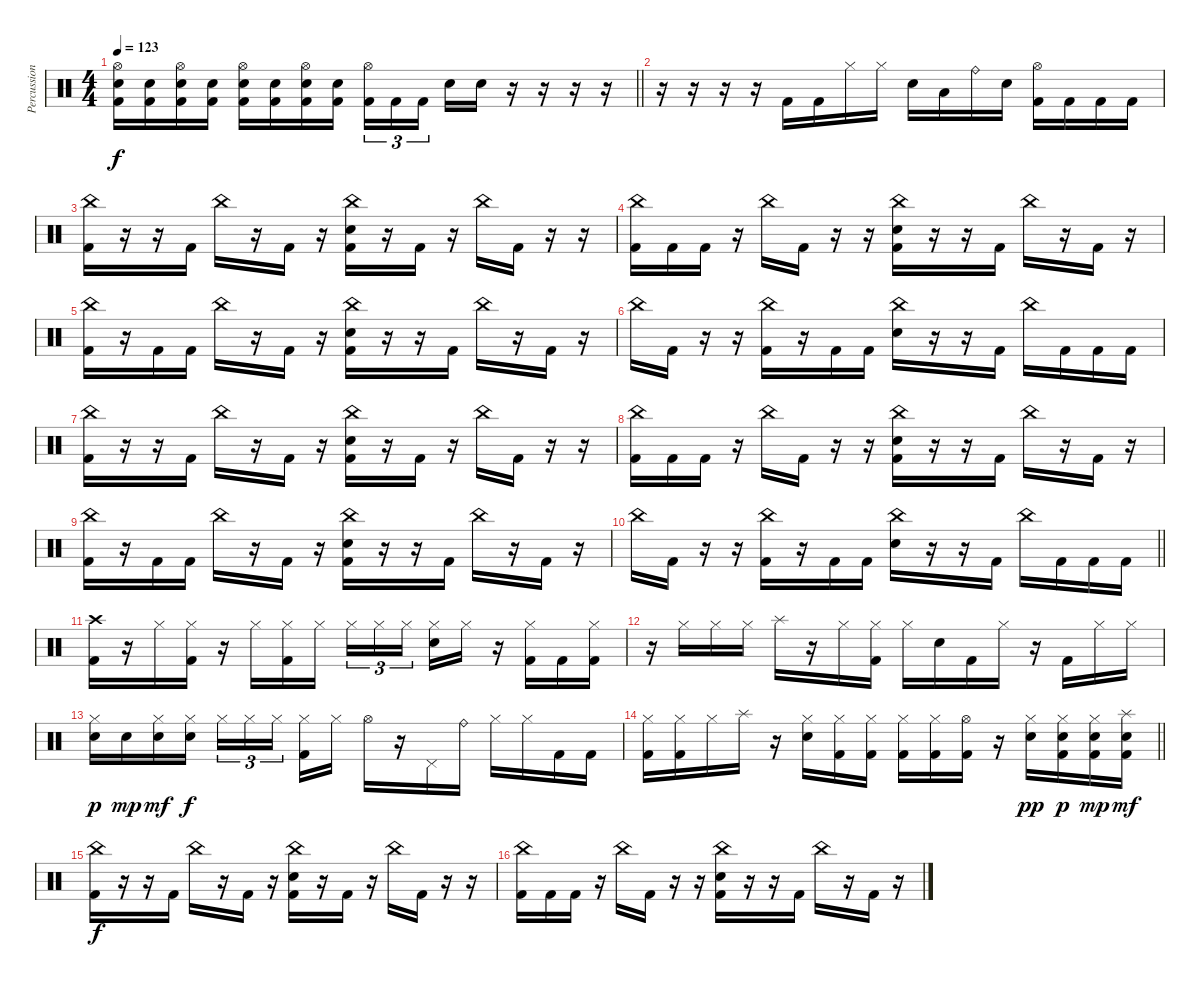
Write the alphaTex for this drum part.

\track ("Percussion" "Percussion") {instrument percussion}
\staff {score}
\articulation defaults
\ts (4 4)
\tempo 123
\clef neutral
\barLineRight lightlight
\ks c
("Hi-Hat (open)" "Electric Snare (hit)" "Kick (hit) 2").16{dy f} ("Electric Snare (hit)" "Kick (hit) 2").16 ("Hi-Hat (open)" "Electric Snare (hit)" "Kick (hit) 2").16 ("Electric Snare (hit)" "Kick (hit) 2").16 ("Hi-Hat (open)" "Electric Snare (hit)" "Kick (hit) 2").16 ("Electric Snare (hit)" "Kick (hit) 2").16 ("Hi-Hat (open)" "Electric Snare (hit)" "Kick (hit) 2").16 ("Electric Snare (hit)" "Kick (hit) 2").16 ("Hi-Hat (open)" "Kick (hit) 2").16{tu (3 2)} "Kick (hit) 2".16{tu (3 2)} "Kick (hit) 2".16{tu (3 2) beam splitsecondary} "Electric Snare (hit)".16 "Electric Snare (hit)".16 r.16 r.16 r.16 r.16 |
r.16 r.16 r.16 r.16 "Kick (hit) 2".16 "Kick (hit) 2".16 "Hi-Hat (closed)".16 "Hi-Hat (closed)".16 "Electric Snare (hit)".16 "Low Tom (hit)".16 "Ride (bell)".16 "Electric Snare (hit)".16 ("Hi-Hat (open)" "Kick (hit) 2").16 "Kick (hit) 2".16 "Kick (hit) 2".16 "Kick (hit) 2".16 |
("China (hit)" "Kick (hit) 2").16 r.16 r.16 "Kick (hit) 2".16 "China (hit)".16 r.16 "Kick (hit) 2".16 r.16 ("China (hit)" "Electric Snare (hit)" "Kick (hit) 2").16 r.16 "Kick (hit) 2".16 r.16 "China (hit)".16 "Kick (hit) 2".16 r.16 r.16 |
("China (hit)" "Kick (hit) 2").16 "Kick (hit) 2".16 "Kick (hit) 2".16 r.16 "China (hit)".16 "Kick (hit) 2".16 r.16 r.16 ("China (hit)" "Electric Snare (hit)" "Kick (hit) 2").16 r.16 r.16 "Kick (hit) 2".16 "China (hit)".16 r.16 "Kick (hit) 2".16 r.16 |
("China (hit)" "Kick (hit) 2").16 r.16 "Kick (hit) 2".16 "Kick (hit) 2".16 "China (hit)".16 r.16 "Kick (hit) 2".16 r.16 ("China (hit)" "Electric Snare (hit)" "Kick (hit) 2").16 r.16 r.16 "Kick (hit) 2".16 "China (hit)".16 r.16 "Kick (hit) 2".16 r.16 |
"China (hit)".16 "Kick (hit) 2".16 r.16 r.16 ("China (hit)" "Kick (hit) 2").16 r.16 "Kick (hit) 2".16 "Kick (hit) 2".16 ("China (hit)" "Electric Snare (hit)").16 r.16 r.16 "Kick (hit) 2".16 "China (hit)".16 "Kick (hit) 2".16 "Kick (hit) 2".16 "Kick (hit) 2".16 |
("China (hit)" "Kick (hit) 2").16 r.16 r.16 "Kick (hit) 2".16 "China (hit)".16 r.16 "Kick (hit) 2".16 r.16 ("China (hit)" "Electric Snare (hit)" "Kick (hit) 2").16 r.16 "Kick (hit) 2".16 r.16 "China (hit)".16 "Kick (hit) 2".16 r.16 r.16 |
("China (hit)" "Kick (hit) 2").16 "Kick (hit) 2".16 "Kick (hit) 2".16 r.16 "China (hit)".16 "Kick (hit) 2".16 r.16 r.16 ("China (hit)" "Electric Snare (hit)" "Kick (hit) 2").16 r.16 r.16 "Kick (hit) 2".16 "China (hit)".16 r.16 "Kick (hit) 2".16 r.16 |
("China (hit)" "Kick (hit) 2").16 r.16 "Kick (hit) 2".16 "Kick (hit) 2".16 "China (hit)".16 r.16 "Kick (hit) 2".16 r.16 ("China (hit)" "Electric Snare (hit)" "Kick (hit) 2").16 r.16 r.16 "Kick (hit) 2".16 "China (hit)".16 r.16 "Kick (hit) 2".16 r.16 |
\barLineRight lightlight "China (hit)".16 "Kick (hit) 2".16
r.16 r.16 ("China (hit)" "Kick (hit) 2").16 r.16 "Kick (hit) 2".16 "Kick (hit) 2".16 ("China (hit)" "Electric Snare (hit)").16 r.16 r.16 "Kick (hit) 2".16 "China (hit)".16 "Kick (hit) 2".16 "Kick (hit) 2".16 "Kick (hit) 2".16 |
("Crash high (hit)" "Kick (hit) 2").16{volume 10} r.16 "Hi-Hat (closed)".16 ("Hi-Hat (closed)" "Kick (hit) 2").16 r.16 "Hi-Hat (closed)".16 ("Hi-Hat (closed)" "Kick (hit) 2").16 "Hi-Hat (closed)".16 "Hi-Hat (closed)".16{tu (3 2)} "Hi-Hat (closed)".16{tu (3 2)} "Hi-Hat (closed)".16{tu (3 2) beam splitsecondary} ("Hi-Hat (closed)" "Snare (hit) 2").16 "Hi-Hat (closed)".16 r.16 ("Hi-Hat (closed)" "Kick (hit) 2").16 "Kick (hit) 2".16 ("Hi-Hat (closed)" "Kick (hit) 2").16 |
r.16 "Hi-Hat (closed)".16 "Hi-Hat (closed)".16 "Hi-Hat (closed)".16 "Splash (hit)".16 r.16 "Hi-Hat (closed)".16 ("Hi-Hat (closed)" "Kick (hit) 2").16 "Hi-Hat (closed)".16 "Snare (hit) 2".16 "Kick (hit) 2".16 "Hi-Hat (closed)".16 r.16 "Kick (hit) 2".16 "Hi-Hat (closed)".16 "Hi-Hat (closed)".16 |
("Hi-Hat (closed)" "Snare (hit) 2").16{dy p} "Snare (hit) 2".16{dy mp} ("Hi-Hat (closed)" "Snare (hit) 2").16{dy mf} ("Hi-Hat (closed)" "Snare (hit) 2").16{dy f} "Hi-Hat (closed)".16{tu (3 2)} "Hi-Hat (closed)".16{tu (3 2)} "Hi-Hat (closed)".16{tu (3 2) beam splitsecondary} ("Hi-Hat (closed)" "Kick (hit) 2").16 "Hi-Hat (closed)".16 "Hi-Hat (open)".16 r.16 "Pedal Hi-Hat (hit)".16 "Ride (bell)".16 "Hi-Hat (closed)".16 "Hi-Hat (closed)".16 "Kick (hit) 2".16 "Kick (hit) 2".16 |
\barLineRight lightlight
("Hi-Hat (closed)" "Kick (hit) 2").16 ("Hi-Hat (closed)" "Kick (hit) 2").16 "Hi-Hat (closed)".16 "Splash (hit)".16 r.16 ("Hi-Hat (closed)" "Snare (hit) 2").16 ("Hi-Hat (closed)" "Kick (hit) 2").16 ("Hi-Hat (closed)" "Kick (hit) 2").16 ("Hi-Hat (closed)" "Kick (hit) 2").16 ("Hi-Hat (closed)" "Kick (hit) 2").16 ("Hi-Hat (open)" "Kick (hit) 2").16 r.16 ("Hi-Hat (closed)" "Snare (hit) 2").16{dy pp} ("Hi-Hat (closed)" "Snare (hit) 2" "Kick (hit) 2").16{dy p} ("Hi-Hat (closed)" "Snare (hit) 2" "Kick (hit) 2").16{dy mp} ("Splash (hit)" "Snare (hit) 2" "Kick (hit) 2").16{dy mf} |
("China (hit)" "Kick (hit) 2").16{dy f} r.16 r.16 "Kick (hit) 2".16 "China (hit)".16 r.16 "Kick (hit) 2".16 r.16 ("China (hit)" "Electric Snare (hit)" "Kick (hit) 2").16 r.16 "Kick (hit) 2".16 r.16 "China (hit)".16 "Kick (hit) 2".16 r.16 r.16 |
("China (hit)" "Kick (hit) 2").16 "Kick (hit) 2".16 "Kick (hit) 2".16 r.16 "China (hit)".16 "Kick (hit) 2".16 r.16 r.16 ("China (hit)" "Electric Snare (hit)" "Kick (hit) 2").16 r.16 r.16 "Kick (hit) 2".16 "China (hit)".16 r.16 "Kick (hit) 2".16 r.16
